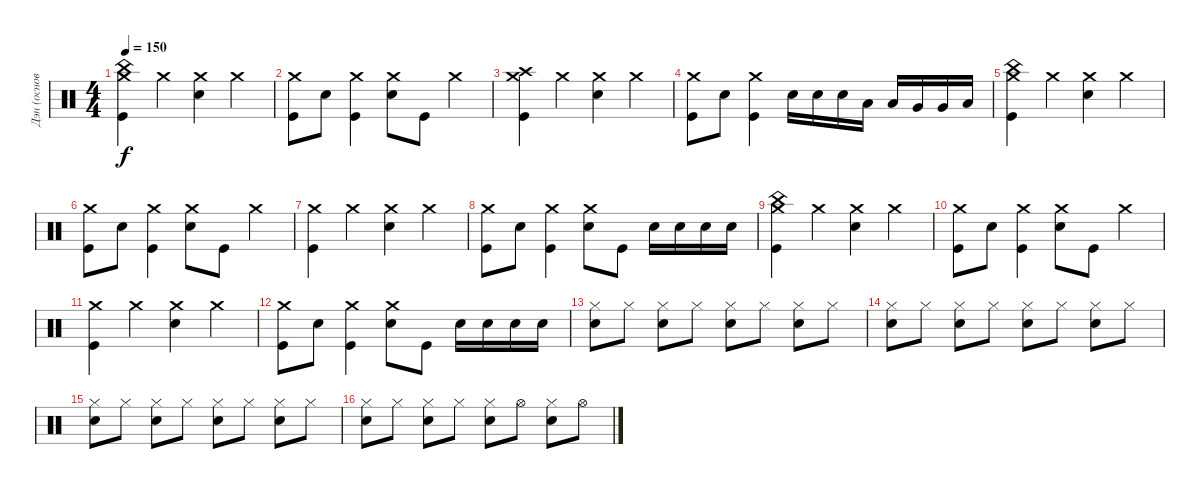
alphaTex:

\track ("Дэн (основа)" "Дэн (основ") {instrument percussion}
\staff {score}
\articulation defaults
\ts (4 4)
\tempo 150
\clef neutral
\ks c
("China (hit)" "Crash medium (hit)" "Kick (hit)").4{dy f} "Crash medium (hit)".4 ("Crash medium (hit)" "Electric Snare (hit)").4 "Crash medium (hit)".4 |
("Crash medium (hit)" "Kick (hit)").8 "Electric Snare (hit)".8 ("Crash medium (hit)" "Kick (hit)").4 ("Crash medium (hit)" "Electric Snare (hit)").8 "Kick (hit)".8 "Crash medium (hit)".4 |
("Crash high (hit)" "Crash medium (hit)" "Kick (hit)").4 "Crash medium (hit)".4 ("Crash medium (hit)" "Electric Snare (hit)").4 "Crash medium (hit)".4 |
("Crash medium (hit)" "Kick (hit)").8 "Electric Snare (hit)".8 ("Crash medium (hit)" "Kick (hit)").4 "Electric Snare (hit)".16 "Electric Snare (hit)".16 "Electric Snare (hit)".16 "Low Tom (hit)".16 "Low Tom (hit)".16 "Very Low Tom (hit)".16 "Very Low Tom (hit)".16 "Low Floor Tom (hit)".16 |
("China (hit)" "Crash medium (hit)" "Kick (hit)").4 "Crash medium (hit)".4 ("Crash medium (hit)" "Electric Snare (hit)").4 "Crash medium (hit)".4 |
("Crash medium (hit)" "Kick (hit)").8 "Electric Snare (hit)".8 ("Crash medium (hit)" "Kick (hit)").4 ("Crash medium (hit)" "Electric Snare (hit)").8 "Kick (hit)".8 "Crash medium (hit)".4 |
("Crash medium (hit)" "Kick (hit)").4 "Crash medium (hit)".4 ("Crash medium (hit)" "Electric Snare (hit)").4 "Crash medium (hit)".4 |
("Crash medium (hit)" "Kick (hit)").8 "Electric Snare (hit)".8 ("Crash medium (hit)" "Kick (hit)").4 ("Crash medium (hit)" "Electric Snare (hit)").8 "Kick (hit)".8 "Electric Snare (hit)".16 "Electric Snare (hit)".16 "Electric Snare (hit)".16 "Electric Snare (hit)".16 |
("China (hit)" "Crash medium (hit)" "Kick (hit)").4 "Crash medium (hit)".4 ("Crash medium (hit)" "Electric Snare (hit)").4 "Crash medium (hit)".4 |
("Crash medium (hit)" "Kick (hit)").8 "Electric Snare (hit)".8 ("Crash medium (hit)" "Kick (hit)").4 ("Crash medium (hit)" "Electric Snare (hit)").8 "Kick (hit)".8 "Crash medium (hit)".4 |
("Crash medium (hit)" "Kick (hit)").4 "Crash medium (hit)".4 ("Crash medium (hit)" "Electric Snare (hit)").4 "Crash medium (hit)".4 |
("Crash medium (hit)" "Kick (hit)").8 "Electric Snare (hit)".8 ("Crash medium (hit)" "Kick (hit)").4 ("Crash medium (hit)" "Electric Snare (hit)").8 "Kick (hit)".8 "Electric Snare (hit)".16 "Electric Snare (hit)".16 "Electric Snare (hit)".16 "Electric Snare (hit)".16 |
("Hi-Hat (closed)" "Electric Snare (hit)").8 "Hi-Hat (closed)".8 ("Hi-Hat (closed)" "Electric Snare (hit)").8 "Hi-Hat (closed)".8 ("Hi-Hat (closed)" "Electric Snare (hit)").8 "Hi-Hat (closed)".8 ("Hi-Hat (closed)" "Electric Snare (hit)").8 "Hi-Hat (closed)".8 |
("Hi-Hat (closed)" "Electric Snare (hit)").8 "Hi-Hat (closed)".8 ("Hi-Hat (closed)" "Electric Snare (hit)").8 "Hi-Hat (closed)".8 ("Hi-Hat (closed)" "Electric Snare (hit)").8 "Hi-Hat (closed)".8 ("Hi-Hat (closed)" "Electric Snare (hit)").8 "Hi-Hat (closed)".8 |
("Hi-Hat (closed)" "Electric Snare (hit)").8 "Hi-Hat (closed)".8 ("Hi-Hat (closed)" "Electric Snare (hit)").8 "Hi-Hat (closed)".8 ("Hi-Hat (closed)" "Electric Snare (hit)").8 "Hi-Hat (closed)".8 ("Hi-Hat (closed)" "Electric Snare (hit)").8 "Hi-Hat (closed)".8 |
("Hi-Hat (closed)" "Electric Snare (hit)").8 "Hi-Hat (closed)".8 ("Hi-Hat (closed)" "Electric Snare (hit)").8 "Hi-Hat (closed)".8 ("Hi-Hat (closed)" "Electric Snare (hit)").8 "Hi-Hat (open)".8 ("Hi-Hat (closed)" "Electric Snare (hit)").8 "Hi-Hat (open)".8
